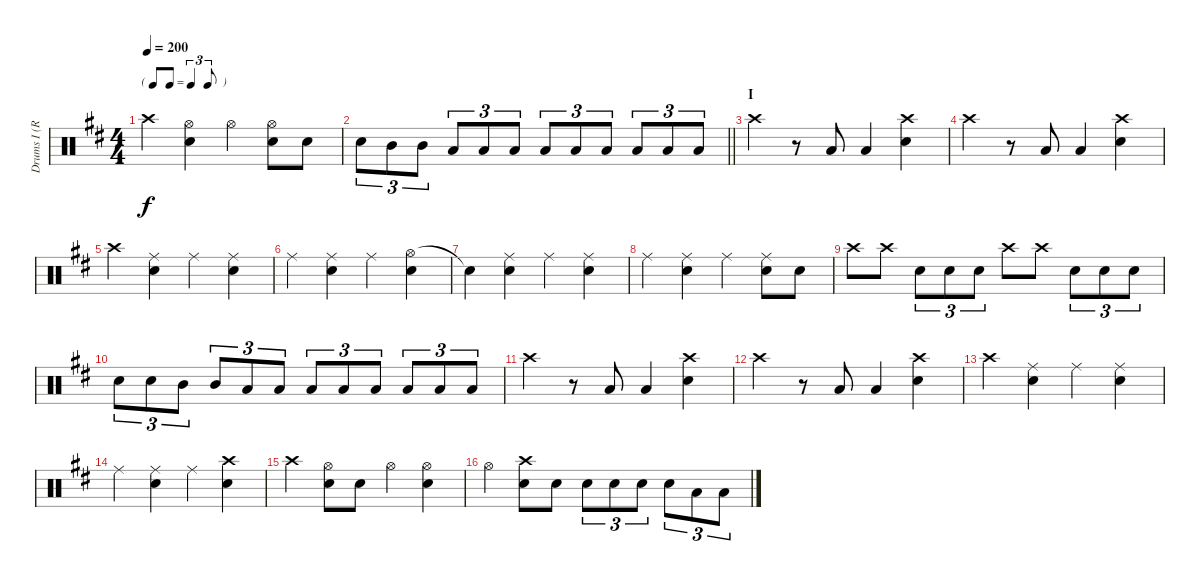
\track ("Drums I (Ruka)" "Drums I (R") {instrument percussion}
\staff {score}
\articulation defaults
\ts (4 4)
\tf triplet8th
\tempo 200
\clef neutral
\ks d "Crash high (hit)".4{dy f}
("Hi-Hat (open)" "Snare (hit) 2").4 "Hi-Hat (open)".4 ("Hi-Hat (open)" "Snare (hit) 2").8 "Snare (hit) 2".8 |
\barLineRight lightlight "Snare (hit) 2".8{tu (3 2)} "Mid Tom (hit)".8{tu (3 2)} "Mid Tom (hit)".8{tu (3 2)} "Low Tom (hit)".8{tu (3 2)} "Low Tom (hit)".8{tu (3 2)} "Low Tom (hit)".8{tu (3 2)} "Low Floor Tom (hit)".8{tu (3 2)} "Low Floor Tom (hit)".8{tu (3 2)} "Low Floor Tom (hit)".8{tu (3 2)} "Low Floor Tom (hit)".8{tu (3 2)} "Low Floor Tom (hit)".8{tu (3 2)} "Low Floor Tom (hit)".8{tu (3 2)}
|
\section ("" "I")
"Crash high (hit)".4 r.8 "Low Tom (hit)".8 "Low Floor Tom (hit)".4 ("Crash high (hit)" "Snare (hit) 2").4 |
"Crash high (hit)".4 r.8 "Low Tom (hit)".8 "Low Floor Tom (hit)".4 ("Crash high (hit)" "Snare (hit) 2").4 |
"Crash high (hit)".4 ("Ride (middle)" "Snare (hit) 2").4 "Ride (middle)".4 ("Ride (middle)" "Snare (hit) 2").4 |
"Ride (middle)".4 ("Ride (middle)" "Snare (hit) 2").4 "Ride (middle)".4 ("Hi-Hat (open)" "Snare (hit) 2").4 |
"Snare (hit)"{t}.4 ("Ride (middle)" "Snare (hit) 2").4 "Ride (middle)".4 ("Ride (middle)" "Snare (hit) 2").4 |
"Ride (middle)".4 ("Ride (middle)" "Snare (hit) 2").4 "Ride (middle)".4 ("Ride (middle)" "Snare (hit) 2").8 "Snare (hit) 2".8 |
"Crash high (hit)".8 "Crash high (hit)".8 "Snare (hit) 2".8{tu (3 2)} "Snare (hit) 2".8{tu (3 2)} "Snare (hit) 2".8{tu (3 2)} "Crash high (hit)".8 "Crash high (hit)".8 "Snare (hit) 2".8{tu (3 2)} "Snare (hit) 2".8{tu (3 2)} "Snare (hit) 2".8{tu (3 2)} |
"Snare (hit) 2".8{tu (3 2)} "Snare (hit) 2".8{tu (3 2)} "Mid Tom (hit)".8{tu (3 2)} "Mid Tom (hit)".8{tu (3 2)} "Low Tom (hit)".8{tu (3 2)} "Low Tom (hit)".8{tu (3 2)} "Low Tom (hit)".8{tu (3 2)} "Low Tom (hit)".8{tu (3 2)} "Low Floor Tom (hit)".8{tu (3 2)} "Low Floor Tom (hit)".8{tu (3 2)} "Low Floor Tom (hit)".8{tu (3 2)} "Low Floor Tom (hit)".8{tu (3 2)} |
"Crash high (hit)".4 r.8 "Low Tom (hit)".8 "Low Floor Tom (hit)".4 ("Crash high (hit)" "Snare (hit) 2").4 |
"Crash high (hit)".4 r.8 "Low Tom (hit)".8 "Low Floor Tom (hit)".4 ("Crash high (hit)" "Snare (hit) 2").4 |
"Crash high (hit)".4 ("Ride (middle)" "Snare (hit) 2").4 "Ride (middle)".4 ("Ride (middle)" "Snare (hit) 2").4 |
"Ride (middle)".4 ("Ride (middle)" "Snare (hit) 2").4 "Ride (middle)".4 ("Crash high (hit)" "Snare (hit) 2").4 |
"Crash high (hit)".4 ("Hi-Hat (open)" "Snare (hit) 2").8 "Snare (hit) 2".8 "Hi-Hat (open)".4 ("Hi-Hat (open)" "Snare (hit) 2").4 |
"Hi-Hat (open)".4 ("Crash high (hit)" "Snare (hit) 2").8 "Snare (hit) 2".8 "Snare (hit) 2".8{tu (3 2)} "Snare (hit) 2".8{tu (3 2)} "Snare (hit) 2".8{tu (3 2)} "Snare (hit) 2".8{tu (3 2)} "Low Tom (hit)".8{tu (3 2)} "Low Floor Tom (hit)".8{tu (3 2)}
